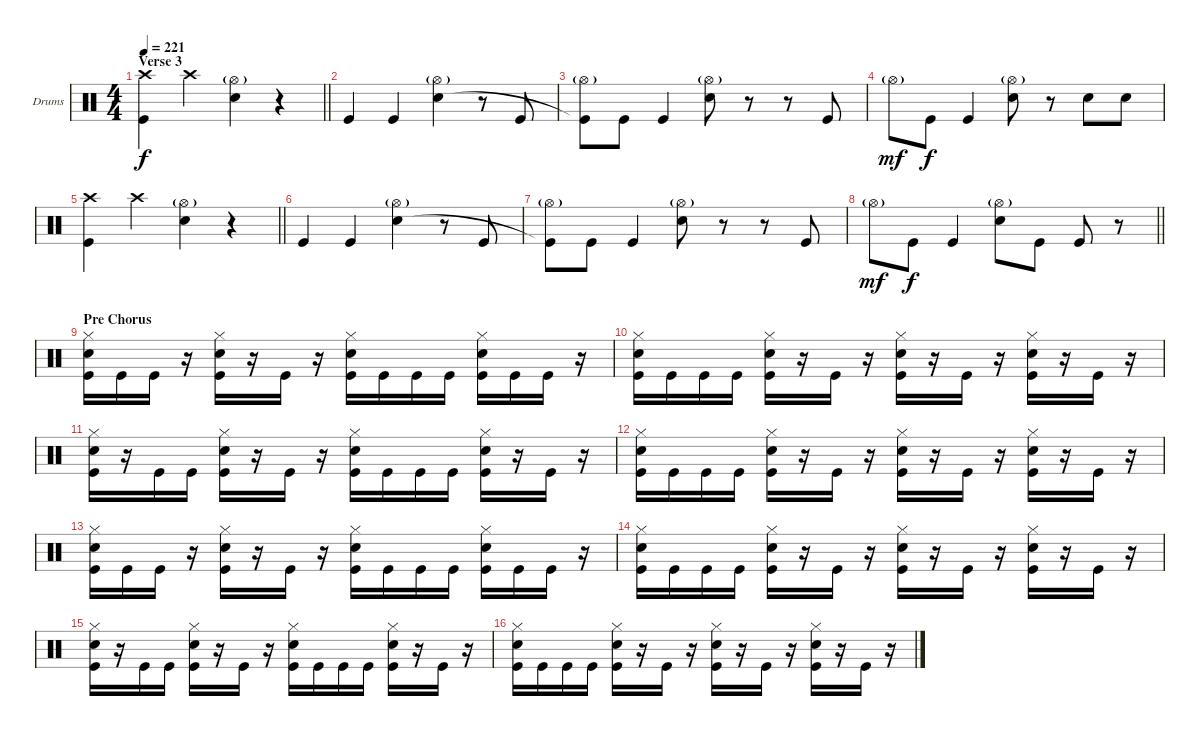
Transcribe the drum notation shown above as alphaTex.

\bracketExtendMode groupsimilarinstruments
\firstSystemTrackNameOrientation horizontal
\otherSystemsTrackNameOrientation horizontal
\track ("Drumkit" "Drums") {instrument percussion}
\staff {score}
\articulation defaults
\ts (4 4)
\section ("" "Verse 3")
\tempo 221
\clef neutral
\barLineRight lightlight
\ks c
("Crash high (hit)" "Kick (hit)").4{dy f} "Crash high (hit)".4 ("Hi-Hat (open)"{g} "Snare (hit) 2").4 r.4 |
"Kick (hit)".4 "Kick (hit)".4 ("Hi-Hat (open)"{g} "Snare (hit) 2").4 r.8 "Kick (hit)".8 |
("Hi-Hat (open)"{g} "Kick (hit)"{t}).8 "Kick (hit)".8 "Kick (hit)".4 ("Hi-Hat (open)"{g} "Snare (hit) 2").8 r.8 r.8 "Kick (hit)".8 |
"Hi-Hat (open)"{g}.8{dy mf} "Kick (hit)".8{dy f} "Kick (hit)".4 ("Hi-Hat (open)"{g} "Snare (hit) 2").8 r.8 "Snare (hit) 2".8 "Snare (hit) 2".8 |
\barLineRight lightlight
("Crash high (hit)" "Kick (hit)").4 "Crash high (hit)".4 ("Hi-Hat (open)"{g} "Snare (hit) 2").4 r.4 |
"Kick (hit)".4 "Kick (hit)".4 ("Hi-Hat (open)"{g} "Snare (hit) 2").4 r.8 "Kick (hit)".8 |
("Hi-Hat (open)"{g} "Kick (hit)"{t}).8 "Kick (hit)".8 "Kick (hit)".4 ("Hi-Hat (open)"{g} "Snare (hit) 2").8 r.8 r.8 "Kick (hit)".8 |
\barLineRight lightlight "Hi-Hat (open)"{g}.8{dy mf} "Kick (hit)".8{dy f} "Kick (hit)".4
("Hi-Hat (open)"{g} "Snare (hit) 2").8 "Kick (hit)".8 "Kick (hit)".8 r.8 |
\section ("" "Pre Chorus")
("Hi-Hat (closed)" "Snare (hit) 2" "Kick (hit)").16 "Kick (hit)".16 "Kick (hit)".16 r.16 ("Hi-Hat (closed)" "Snare (hit) 2" "Kick (hit)").16 r.16 "Kick (hit)".16 r.16 ("Hi-Hat (closed)" "Snare (hit) 2" "Kick (hit)").16 "Kick (hit)".16 "Kick (hit)".16 "Kick (hit)".16 ("Hi-Hat (closed)" "Snare (hit) 2" "Kick (hit)").16 "Kick (hit)".16 "Kick (hit)".16 r.16 |
("Hi-Hat (closed)" "Snare (hit) 2" "Kick (hit)").16 "Kick (hit)".16 "Kick (hit)".16 "Kick (hit)".16 ("Hi-Hat (closed)" "Snare (hit) 2" "Kick (hit)").16 r.16 "Kick (hit)".16 r.16 ("Hi-Hat (closed)" "Snare (hit) 2" "Kick (hit)").16 r.16 "Kick (hit)".16 r.16 ("Hi-Hat (closed)" "Snare (hit) 2" "Kick (hit)").16 r.16 "Kick (hit)".16 r.16 |
("Hi-Hat (closed)" "Snare (hit) 2" "Kick (hit)").16 r.16 "Kick (hit)".16 "Kick (hit)".16 ("Hi-Hat (closed)" "Snare (hit) 2" "Kick (hit)").16 r.16 "Kick (hit)".16 r.16 ("Hi-Hat (closed)" "Snare (hit) 2" "Kick (hit)").16 "Kick (hit)".16 "Kick (hit)".16 "Kick (hit)".16 ("Hi-Hat (closed)" "Snare (hit) 2" "Kick (hit)").16 r.16 "Kick (hit)".16 r.16 |
("Hi-Hat (closed)" "Snare (hit) 2" "Kick (hit)").16 "Kick (hit)".16 "Kick (hit)".16 "Kick (hit)".16 ("Hi-Hat (closed)" "Snare (hit) 2" "Kick (hit)").16 r.16 "Kick (hit)".16 r.16 ("Hi-Hat (closed)" "Snare (hit) 2" "Kick (hit)").16 r.16 "Kick (hit)".16 r.16 ("Hi-Hat (closed)" "Snare (hit) 2" "Kick (hit)").16 r.16 "Kick (hit)".16 r.16 |
("Hi-Hat (closed)" "Snare (hit) 2" "Kick (hit)").16 "Kick (hit)".16 "Kick (hit)".16 r.16 ("Hi-Hat (closed)" "Snare (hit) 2" "Kick (hit)").16 r.16 "Kick (hit)".16 r.16 ("Hi-Hat (closed)" "Snare (hit) 2" "Kick (hit)").16 "Kick (hit)".16 "Kick (hit)".16 "Kick (hit)".16 ("Hi-Hat (closed)" "Snare (hit) 2" "Kick (hit)").16 "Kick (hit)".16 "Kick (hit)".16 r.16 |
("Hi-Hat (closed)" "Snare (hit) 2" "Kick (hit)").16 "Kick (hit)".16 "Kick (hit)".16 "Kick (hit)".16 ("Hi-Hat (closed)" "Snare (hit) 2" "Kick (hit)").16 r.16 "Kick (hit)".16 r.16 ("Hi-Hat (closed)" "Snare (hit) 2" "Kick (hit)").16 r.16 "Kick (hit)".16 r.16 ("Hi-Hat (closed)" "Snare (hit) 2" "Kick (hit)").16 r.16 "Kick (hit)".16 r.16 |
("Hi-Hat (closed)" "Snare (hit) 2" "Kick (hit)").16 r.16 "Kick (hit)".16 "Kick (hit)".16 ("Hi-Hat (closed)" "Snare (hit) 2" "Kick (hit)").16 r.16 "Kick (hit)".16 r.16 ("Hi-Hat (closed)" "Snare (hit) 2" "Kick (hit)").16 "Kick (hit)".16 "Kick (hit)".16 "Kick (hit)".16 ("Hi-Hat (closed)" "Snare (hit) 2" "Kick (hit)").16 r.16 "Kick (hit)".16 r.16 |
("Hi-Hat (closed)" "Snare (hit) 2" "Kick (hit)").16 "Kick (hit)".16 "Kick (hit)".16 "Kick (hit)".16 ("Hi-Hat (closed)" "Snare (hit) 2" "Kick (hit)").16 r.16 "Kick (hit)".16 r.16 ("Hi-Hat (closed)" "Snare (hit) 2" "Kick (hit)").16 r.16 "Kick (hit)".16 r.16 ("Hi-Hat (closed)" "Snare (hit) 2" "Kick (hit)").16 r.16 "Kick (hit)".16 r.16
